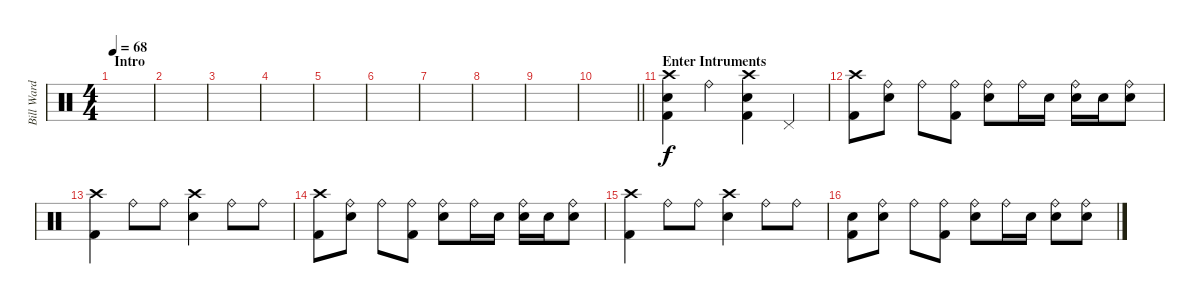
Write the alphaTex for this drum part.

\track ("Bill Ward" "Bill Ward") {instrument percussion}
\staff {score}
\articulation defaults
\ts (4 4)
\section ("" "Intro")
\tempo 68
\clef neutral
\ks c
|
|
|
|
|
|
|
|
|
\barLineRight lightlight
|
\section ("" "Enter Intruments")
("Crash high (hit)" "Snare (hit) 2" "Kick (hit) 2").4 "Ride (bell)".4 ("Crash high (hit)" "Snare (hit) 2" "Kick (hit) 2").4 "Pedal Hi-Hat (hit)".4 |
("Crash high (hit)" "Kick (hit) 2").8 ("Ride (bell)" "Snare (hit) 2").8 "Ride (bell)".8 ("Ride (bell)" "Kick (hit) 2").8 ("Ride (bell)" "Snare (hit) 2").8 "Ride (bell)".16 "Snare (hit) 2".16 ("Ride (bell)" "Snare (hit) 2").16 "Snare (hit) 2".16 ("Ride (bell)" "Snare (hit) 2").8 |
("Crash high (hit)" "Kick (hit) 2").4 "Ride (bell)".8 "Ride (bell)".8 ("Crash high (hit)" "Snare (hit) 2").4 "Ride (bell)".8 "Ride (bell)".8 |
("Crash high (hit)" "Kick (hit) 2").8 ("Ride (bell)" "Snare (hit) 2").8 "Ride (bell)".8 ("Ride (bell)" "Kick (hit) 2").8 ("Ride (bell)" "Snare (hit) 2").8 "Ride (bell)".16 "Snare (hit) 2".16 ("Ride (bell)" "Snare (hit) 2").16 "Snare (hit) 2".16 ("Ride (bell)" "Snare (hit) 2").8 |
("Crash high (hit)" "Kick (hit) 2").4 "Ride (bell)".8 "Ride (bell)".8 ("Crash high (hit)" "Snare (hit) 2").4 "Ride (bell)".8 "Ride (bell)".8 |
("Snare (hit) 2" "Kick (hit) 2").8 ("Ride (bell)" "Snare (hit) 2").8 "Ride (bell)".8 ("Ride (bell)" "Kick (hit) 2").8 ("Ride (bell)" "Snare (hit) 2").8 "Ride (bell)".16 "Snare (hit) 2".16 ("Ride (bell)" "Snare (hit) 2").8 ("Ride (bell)" "Snare (hit) 2").8
